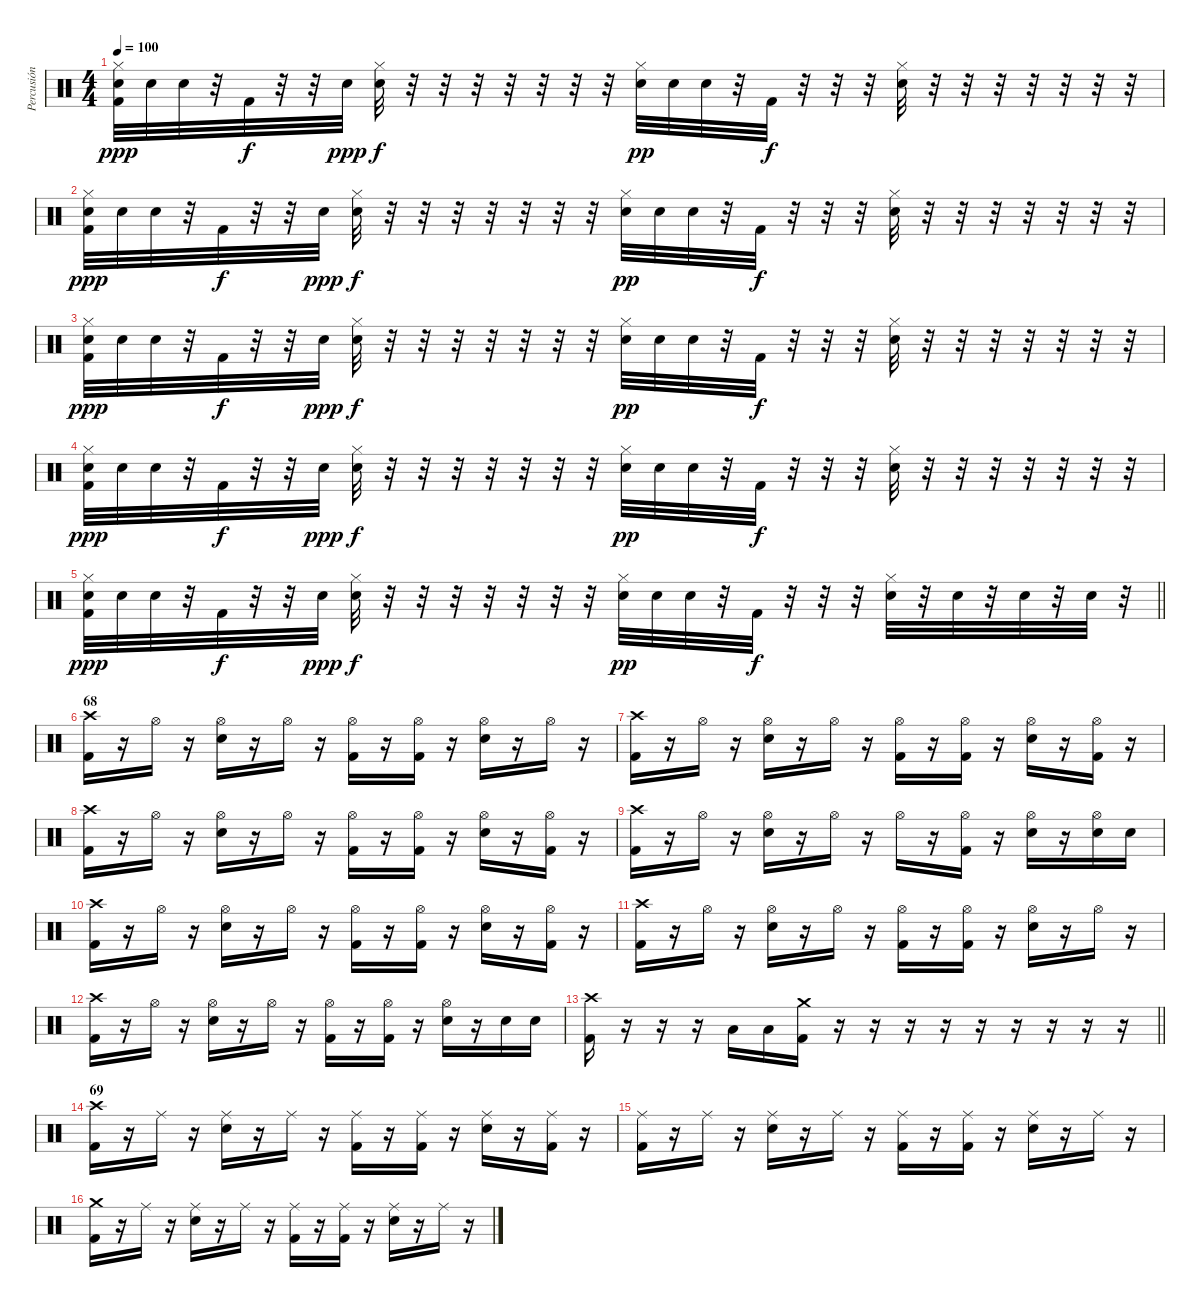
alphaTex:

\track ("Percusión" "Percusión") {instrument percussion}
\staff {score}
\articulation defaults
\ts (4 4)
\tempo 100
\clef neutral
\ks c
("Hi-Hat (closed)" "Electric Snare (hit)" "Kick (hit) 2").32{dy ppp} "Electric Snare (hit)".32 "Electric Snare (hit)".32 r.32 "Kick (hit) 2".32{dy f} r.32 r.32 "Electric Snare (hit)".32{dy ppp} ("Hi-Hat (closed)" "Electric Snare (hit)").32{dy f} r.32 r.32 r.32 r.32 r.32 r.32 r.32 ("Hi-Hat (closed)" "Electric Snare (hit)").32{dy pp} "Electric Snare (hit)".32 "Electric Snare (hit)".32 r.32 "Kick (hit) 2".32{dy f} r.32 r.32 r.32 ("Hi-Hat (closed)" "Electric Snare (hit)").32 r.32 r.32 r.32 r.32 r.32 r.32 r.32 |
("Hi-Hat (closed)" "Electric Snare (hit)" "Kick (hit) 2").32{dy ppp} "Electric Snare (hit)".32 "Electric Snare (hit)".32 r.32 "Kick (hit) 2".32{dy f} r.32 r.32 "Electric Snare (hit)".32{dy ppp} ("Hi-Hat (closed)" "Electric Snare (hit)").32{dy f} r.32 r.32 r.32 r.32 r.32 r.32 r.32 ("Hi-Hat (closed)" "Electric Snare (hit)").32{dy pp} "Electric Snare (hit)".32 "Electric Snare (hit)".32 r.32 "Kick (hit) 2".32{dy f} r.32 r.32 r.32 ("Hi-Hat (closed)" "Electric Snare (hit)").32 r.32 r.32 r.32 r.32 r.32 r.32 r.32 |
("Hi-Hat (closed)" "Electric Snare (hit)" "Kick (hit) 2").32{dy ppp} "Electric Snare (hit)".32 "Electric Snare (hit)".32 r.32 "Kick (hit) 2".32{dy f} r.32 r.32 "Electric Snare (hit)".32{dy ppp} ("Hi-Hat (closed)" "Electric Snare (hit)").32{dy f} r.32 r.32 r.32 r.32 r.32 r.32 r.32 ("Hi-Hat (closed)" "Electric Snare (hit)").32{dy pp} "Electric Snare (hit)".32 "Electric Snare (hit)".32 r.32 "Kick (hit) 2".32{dy f} r.32 r.32 r.32 ("Hi-Hat (closed)" "Electric Snare (hit)").32 r.32 r.32 r.32 r.32 r.32 r.32 r.32 |
("Hi-Hat (closed)" "Electric Snare (hit)" "Kick (hit) 2").32{dy ppp} "Electric Snare (hit)".32 "Electric Snare (hit)".32 r.32 "Kick (hit) 2".32{dy f} r.32 r.32 "Electric Snare (hit)".32{dy ppp} ("Hi-Hat (closed)" "Electric Snare (hit)").32{dy f} r.32 r.32 r.32 r.32 r.32 r.32 r.32 ("Hi-Hat (closed)" "Electric Snare (hit)").32{dy pp} "Electric Snare (hit)".32 "Electric Snare (hit)".32 r.32 "Kick (hit) 2".32{dy f} r.32 r.32 r.32 ("Hi-Hat (closed)" "Electric Snare (hit)").32 r.32 r.32 r.32 r.32 r.32 r.32 r.32 |
\barLineRight lightlight
("Hi-Hat (closed)" "Electric Snare (hit)" "Kick (hit) 2").32{dy ppp} "Electric Snare (hit)".32 "Electric Snare (hit)".32 r.32 "Kick (hit) 2".32{dy f} r.32 r.32 "Electric Snare (hit)".32{dy ppp} ("Hi-Hat (closed)" "Electric Snare (hit)").32{dy f} r.32 r.32 r.32 r.32 r.32 r.32 r.32 ("Hi-Hat (closed)" "Electric Snare (hit)").32{dy pp} "Electric Snare (hit)".32 "Electric Snare (hit)".32 r.32 "Kick (hit) 2".32{dy f} r.32 r.32 r.32 ("Hi-Hat (closed)" "Electric Snare (hit)").32 r.32 "Electric Snare (hit)".32 r.32 "Electric Snare (hit)".32 r.32 "Electric Snare (hit)".32 r.32 |
\section ("" "68")
("Crash high (hit)" "Kick (hit) 2").16 r.16 "Hi-Hat (open)".16 r.16 ("Hi-Hat (open)" "Electric Snare (hit)").16 r.16 "Hi-Hat (open)".16 r.16 ("Hi-Hat (open)" "Kick (hit) 2").16 r.16 ("Hi-Hat (open)" "Kick (hit) 2").16 r.16 ("Hi-Hat (open)" "Electric Snare (hit)").16 r.16 "Hi-Hat (open)".16 r.16 |
("Crash high (hit)" "Kick (hit) 2").16 r.16 "Hi-Hat (open)".16 r.16 ("Hi-Hat (open)" "Electric Snare (hit)").16 r.16 "Hi-Hat (open)".16 r.16 ("Hi-Hat (open)" "Kick (hit) 2").16 r.16 ("Hi-Hat (open)" "Kick (hit) 2").16 r.16 ("Hi-Hat (open)" "Electric Snare (hit)").16 r.16 ("Hi-Hat (open)" "Kick (hit) 2").16 r.16 |
("Crash high (hit)" "Kick (hit) 2").16 r.16 "Hi-Hat (open)".16 r.16 ("Hi-Hat (open)" "Electric Snare (hit)").16 r.16 "Hi-Hat (open)".16 r.16 ("Hi-Hat (open)" "Kick (hit) 2").16 r.16 ("Hi-Hat (open)" "Kick (hit) 2").16 r.16 ("Hi-Hat (open)" "Electric Snare (hit)").16 r.16 ("Hi-Hat (open)" "Kick (hit) 2").16 r.16 |
("Crash high (hit)" "Kick (hit) 2").16 r.16 "Hi-Hat (open)".16 r.16 ("Hi-Hat (open)" "Electric Snare (hit)").16 r.16 "Hi-Hat (open)".16 r.16 "Hi-Hat (open)".16 r.16 ("Hi-Hat (open)" "Kick (hit) 2").16 r.16 ("Hi-Hat (open)" "Electric Snare (hit)").16 r.16 ("Hi-Hat (open)" "Electric Snare (hit)").16 "Electric Snare (hit)".16 |
("Crash high (hit)" "Kick (hit) 2").16 r.16 "Hi-Hat (open)".16 r.16 ("Hi-Hat (open)" "Electric Snare (hit)").16 r.16 "Hi-Hat (open)".16 r.16 ("Hi-Hat (open)" "Kick (hit) 2").16 r.16 ("Hi-Hat (open)" "Kick (hit) 2").16 r.16 ("Hi-Hat (open)" "Electric Snare (hit)").16 r.16 ("Hi-Hat (open)" "Kick (hit) 2").16 r.16 |
("Crash high (hit)" "Kick (hit) 2").16 r.16 "Hi-Hat (open)".16 r.16 ("Hi-Hat (open)" "Electric Snare (hit)").16 r.16 "Hi-Hat (open)".16 r.16 ("Hi-Hat (open)" "Kick (hit) 2").16 r.16 ("Hi-Hat (open)" "Kick (hit) 2").16 r.16 ("Hi-Hat (open)" "Electric Snare (hit)").16 r.16 "Hi-Hat (open)".16 r.16 |
("Crash high (hit)" "Kick (hit) 2").16 r.16 "Hi-Hat (open)".16 r.16 ("Hi-Hat (open)" "Electric Snare (hit)").16 r.16 "Hi-Hat (open)".16 r.16 ("Hi-Hat (open)" "Kick (hit) 2").16 r.16 ("Hi-Hat (open)" "Kick (hit) 2").16 r.16 ("Hi-Hat (open)" "Electric Snare (hit)").16 r.16 "Electric Snare (hit)".16 "Electric Snare (hit)".16 |
\barLineRight lightlight
("Crash high (hit)" "Kick (hit) 2").16 r.16 r.16 r.16 "Low Tom (hit)".16 "Low Tom (hit)".16 ("Crash medium (hit)" "Kick (hit) 2").16 r.16 r.16 r.16 r.16 r.16 r.16 r.16 r.16 r.16 |
\section ("" "69")
("Crash high (hit)" "Kick (hit) 2").16 r.16 "Ride (middle)".16 r.16 ("Ride (middle)" "Electric Snare (hit)").16 r.16 "Ride (middle)".16 r.16 ("Ride (middle)" "Kick (hit) 2").16 r.16 ("Ride (middle)" "Kick (hit) 2").16 r.16 ("Ride (middle)" "Electric Snare (hit)").16 r.16 ("Ride (middle)" "Kick (hit) 2").16 r.16 |
("Ride (middle)" "Kick (hit) 2").16 r.16 "Ride (middle)".16 r.16 ("Ride (middle)" "Electric Snare (hit)").16 r.16 "Ride (middle)".16 r.16 ("Ride (middle)" "Kick (hit) 2").16 r.16 ("Ride (middle)" "Kick (hit) 2").16 r.16 ("Ride (middle)" "Electric Snare (hit)").16 r.16 "Ride (middle)".16 r.16 |
("Crash medium (hit)" "Kick (hit) 2").16 r.16 "Ride (middle)".16 r.16 ("Ride (middle)" "Electric Snare (hit)").16 r.16 "Ride (middle)".16 r.16 ("Ride (middle)" "Kick (hit) 2").16 r.16 ("Ride (middle)" "Kick (hit) 2").16 r.16 ("Ride (middle)" "Electric Snare (hit)").16 r.16 "Ride (middle)".16 r.16
